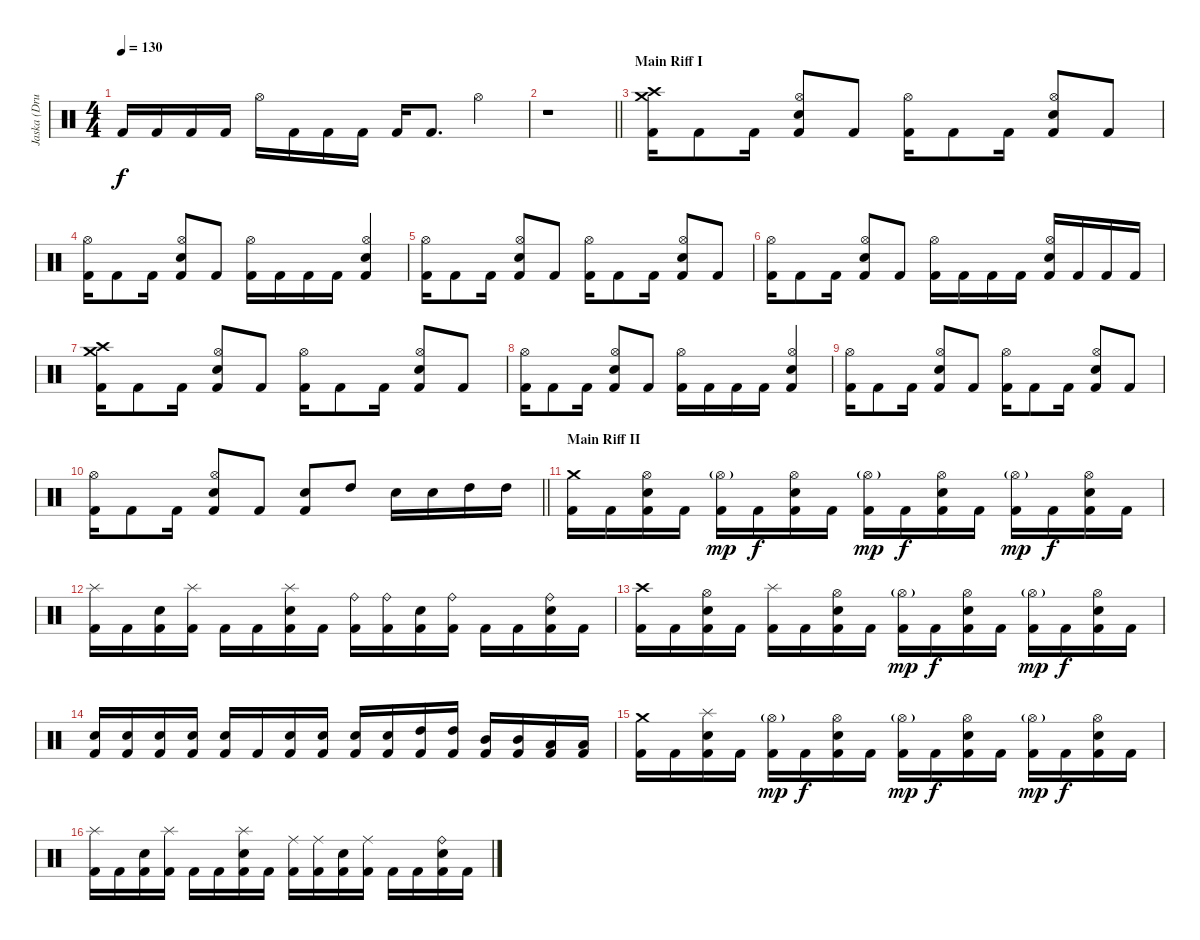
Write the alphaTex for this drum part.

\track ("Jaska (Drums)" "Jaska (Dru") {instrument percussion}
\staff {score}
\articulation defaults
\ts (4 4)
\tempo 130
\clef neutral
\ks c "Kick (hit) 2".16{dy f} "Kick (hit) 2".16 "Kick (hit) 2".16 "Kick (hit) 2".16 "Hi-Hat (open)".16 "Kick (hit) 2".16 "Kick (hit) 2".16 "Kick (hit) 2".16 "Kick (hit) 2".16 "Kick (hit) 2".8{d} "Hi-Hat (open)".4
|
\barLineRight lightlight
r.1 |
\section ("" "Main Riff I")
("Crash medium (hit)" "Crash high (hit)" "Kick (hit) 2").16{volume 16 balance 8} "Kick (hit) 2".8 "Kick (hit) 2".16 ("Hi-Hat (open)" "Electric Snare (hit)" "Kick (hit) 2").8 "Kick (hit) 2".8 ("Hi-Hat (open)" "Kick (hit) 2").16 "Kick (hit) 2".8 "Kick (hit) 2".16 ("Hi-Hat (open)" "Electric Snare (hit)" "Kick (hit) 2").8 "Kick (hit) 2".8 |
("Hi-Hat (open)" "Kick (hit) 2").16 "Kick (hit) 2".8 "Kick (hit) 2".16 ("Hi-Hat (open)" "Electric Snare (hit)" "Kick (hit) 2").8 "Kick (hit) 2".8 ("Hi-Hat (open)" "Kick (hit) 2").16 "Kick (hit) 2".16 "Kick (hit) 2".16 "Kick (hit) 2".16 ("Hi-Hat (open)" "Electric Snare (hit)" "Kick (hit) 2").4 |
("Hi-Hat (open)" "Kick (hit) 2").16 "Kick (hit) 2".8 "Kick (hit) 2".16 ("Hi-Hat (open)" "Electric Snare (hit)" "Kick (hit) 2").8 "Kick (hit) 2".8 ("Hi-Hat (open)" "Kick (hit) 2").16 "Kick (hit) 2".8 "Kick (hit) 2".16 ("Hi-Hat (open)" "Electric Snare (hit)" "Kick (hit) 2").8 "Kick (hit) 2".8 |
("Hi-Hat (open)" "Kick (hit) 2").16 "Kick (hit) 2".8 "Kick (hit) 2".16 ("Hi-Hat (open)" "Electric Snare (hit)" "Kick (hit) 2").8 "Kick (hit) 2".8 ("Hi-Hat (open)" "Kick (hit) 2").16 "Kick (hit) 2".16 "Kick (hit) 2".16 "Kick (hit) 2".16 ("Hi-Hat (open)" "Electric Snare (hit)" "Kick (hit) 2").16 "Kick (hit) 2".16 "Kick (hit) 2".16 "Kick (hit) 2".16 |
("Crash medium (hit)" "Crash high (hit)" "Kick (hit) 2").16 "Kick (hit) 2".8 "Kick (hit) 2".16 ("Hi-Hat (open)" "Electric Snare (hit)" "Kick (hit) 2").8 "Kick (hit) 2".8 ("Hi-Hat (open)" "Kick (hit) 2").16 "Kick (hit) 2".8 "Kick (hit) 2".16 ("Hi-Hat (open)" "Electric Snare (hit)" "Kick (hit) 2").8 "Kick (hit) 2".8 |
("Hi-Hat (open)" "Kick (hit) 2").16 "Kick (hit) 2".8 "Kick (hit) 2".16 ("Hi-Hat (open)" "Electric Snare (hit)" "Kick (hit) 2").8 "Kick (hit) 2".8 ("Hi-Hat (open)" "Kick (hit) 2").16 "Kick (hit) 2".16 "Kick (hit) 2".16 "Kick (hit) 2".16 ("Hi-Hat (open)" "Electric Snare (hit)" "Kick (hit) 2").4 |
("Hi-Hat (open)" "Kick (hit) 2").16 "Kick (hit) 2".8 "Kick (hit) 2".16 ("Hi-Hat (open)" "Electric Snare (hit)" "Kick (hit) 2").8 "Kick (hit) 2".8 ("Hi-Hat (open)" "Kick (hit) 2").16 "Kick (hit) 2".8 "Kick (hit) 2".16 ("Hi-Hat (open)" "Electric Snare (hit)" "Kick (hit) 2").8 "Kick (hit) 2".8 |
\barLineRight lightlight
("Hi-Hat (open)" "Kick (hit) 2").16 "Kick (hit) 2".8 "Kick (hit) 2".16 ("Hi-Hat (open)" "Electric Snare (hit)" "Kick (hit) 2").8 "Kick (hit) 2".8 ("Electric Snare (hit)" "Kick (hit) 2").8 "High Tom (hit)".8 "Electric Snare (hit)".16 "Electric Snare (hit)".16 "High Tom (hit)".16 "High Tom (hit)".16 |
\section ("" "Main Riff II")
("Crash medium (hit)" "Kick (hit) 2").16 "Kick (hit) 2".16 ("Hi-Hat (open)" "Electric Snare (hit)" "Kick (hit) 2").16 "Kick (hit) 2".16 ("Hi-Hat (open)"{g} "Kick (hit) 2").16{dy mp} "Kick (hit) 2".16{dy f} ("Hi-Hat (open)" "Electric Snare (hit)" "Kick (hit) 2").16 "Kick (hit) 2".16 ("Hi-Hat (open)"{g} "Kick (hit) 2").16{dy mp} "Kick (hit) 2".16{dy f} ("Hi-Hat (open)" "Electric Snare (hit)" "Kick (hit) 2").16 "Kick (hit) 2".16 ("Hi-Hat (open)"{g} "Kick (hit) 2").16{dy mp} "Kick (hit) 2".16{dy f} ("Hi-Hat (open)" "Electric Snare (hit)" "Kick (hit) 2").16 "Kick (hit) 2".16 |
("Splash (hit)" "Kick (hit) 2").16 "Kick (hit) 2".16 ("Electric Snare (hit)" "Kick (hit) 2").16 ("Splash (hit)" "Kick (hit) 2").16 "Kick (hit) 2".16 "Kick (hit) 2".16 ("Splash (hit)" "Electric Snare (hit)" "Kick (hit) 2").16 "Kick (hit) 2".16 ("Ride (bell)" "Kick (hit) 2").16 ("Ride (bell)" "Kick (hit) 2").16 ("Electric Snare (hit)" "Kick (hit) 2").16 ("Ride (bell)" "Kick (hit) 2").16 "Kick (hit) 2".16 "Kick (hit) 2".16 ("Ride (bell)" "Electric Snare (hit)" "Kick (hit) 2").16 "Kick (hit) 2".16 |
("Crash high (hit)" "Kick (hit) 2").16 "Kick (hit) 2".16 ("Hi-Hat (open)" "Electric Snare (hit)" "Kick (hit) 2").16 "Kick (hit) 2".16 ("Splash (hit)" "Kick (hit) 2").16 "Kick (hit) 2".16 ("Hi-Hat (open)" "Electric Snare (hit)" "Kick (hit) 2").16 "Kick (hit) 2".16 ("Hi-Hat (open)"{g} "Kick (hit) 2").16{dy mp} "Kick (hit) 2".16{dy f} ("Hi-Hat (open)" "Electric Snare (hit)" "Kick (hit) 2").16 "Kick (hit) 2".16 ("Hi-Hat (open)"{g} "Kick (hit) 2").16{dy mp} "Kick (hit) 2".16{dy f} ("Hi-Hat (open)" "Electric Snare (hit)" "Kick (hit) 2").16 "Kick (hit) 2".16 |
("Electric Snare (hit)" "Kick (hit) 2").16 ("Electric Snare (hit)" "Kick (hit) 2").16 ("Electric Snare (hit)" "Kick (hit) 2").16 ("Electric Snare (hit)" "Kick (hit) 2").16 ("Electric Snare (hit)" "Kick (hit) 2").16 "Kick (hit) 2".16 ("Electric Snare (hit)" "Kick (hit) 2").16 ("Electric Snare (hit)" "Kick (hit) 2").16 ("Electric Snare (hit)" "Kick (hit) 2").16 ("Electric Snare (hit)" "Kick (hit) 2").16 ("High Tom (hit)" "Kick (hit) 2").16 ("High Tom (hit)" "Kick (hit) 2").16 ("Mid Tom (hit)" "Kick (hit) 2").16 ("Mid Tom (hit)" "Kick (hit) 2").16 ("Low Tom (hit)" "Kick (hit) 2").16 ("Low Tom (hit)" "Kick (hit) 2").16 |
("Crash medium (hit)" "Kick (hit) 2").16 "Kick (hit) 2".16 ("Splash (hit)" "Electric Snare (hit)" "Kick (hit) 2").16 "Kick (hit) 2".16 ("Hi-Hat (open)"{g} "Kick (hit) 2").16{dy mp} "Kick (hit) 2".16{dy f} ("Hi-Hat (open)" "Electric Snare (hit)" "Kick (hit) 2").16 "Kick (hit) 2".16 ("Hi-Hat (open)"{g} "Kick (hit) 2").16{dy mp} "Kick (hit) 2".16{dy f} ("Hi-Hat (open)" "Electric Snare (hit)" "Kick (hit) 2").16 "Kick (hit) 2".16 ("Hi-Hat (open)"{g} "Kick (hit) 2").16{dy mp} "Kick (hit) 2".16{dy f} ("Hi-Hat (open)" "Electric Snare (hit)" "Kick (hit) 2").16 "Kick (hit) 2".16 |
("Splash (hit)" "Kick (hit) 2").16 "Kick (hit) 2".16 ("Electric Snare (hit)" "Kick (hit) 2").16 ("Splash (hit)" "Kick (hit) 2").16 "Kick (hit) 2".16 "Kick (hit) 2".16 ("Splash (hit)" "Electric Snare (hit)" "Kick (hit) 2").16 "Kick (hit) 2".16 ("Ride (middle)" "Kick (hit) 2").16 ("Ride (middle)" "Kick (hit) 2").16 ("Electric Snare (hit)" "Kick (hit) 2").16 ("Ride (middle)" "Kick (hit) 2").16 "Kick (hit) 2".16 "Kick (hit) 2".16 ("Ride (bell)" "Electric Snare (hit)" "Kick (hit) 2").16 "Kick (hit) 2".16
